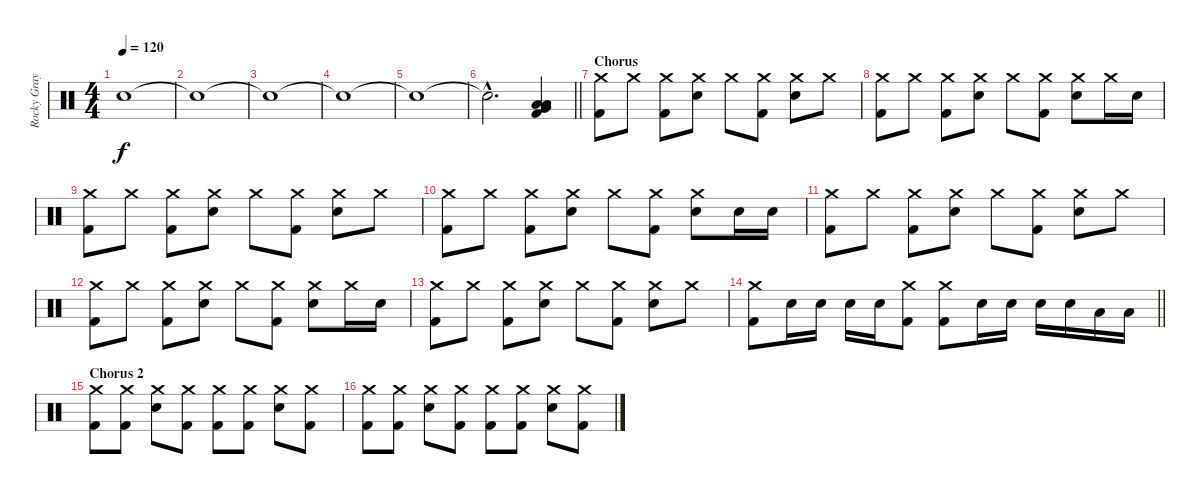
\track ("Rocky Gray" "Rocky Gray") {instrument percussion}
\staff {score}
\articulation defaults
\ts (4 4)
\tempo 120
\clef neutral
\ks c "Snare (hit)"{t}.1{dy f}
|
"Snare (hit)"{t}.1 |
"Snare (hit)"{t}.1 |
"Snare (hit)"{t}.1 |
"Snare (hit)"{t}.1 |
\barLineRight lightlight "Snare (hit)"{hac t}.2{d}
("Low Tom (hit)" "Very Low Tom (hit)" "Low Floor Tom (hit)" "Kick (hit) 2").4 |
\section ("" "Chorus")
("Crash medium (hit)" "Kick (hit) 2").8 "Crash medium (hit)".8 ("Crash medium (hit)" "Kick (hit) 2").8 ("Crash medium (hit)" "Electric Snare (hit)").8 "Crash medium (hit)".8 ("Crash medium (hit)" "Kick (hit) 2").8 ("Crash medium (hit)" "Electric Snare (hit)").8 "Crash medium (hit)".8 |
("Crash medium (hit)" "Kick (hit) 2").8 "Crash medium (hit)".8 ("Crash medium (hit)" "Kick (hit) 2").8 ("Crash medium (hit)" "Electric Snare (hit)").8 "Crash medium (hit)".8 ("Crash medium (hit)" "Kick (hit) 2").8 ("Crash medium (hit)" "Electric Snare (hit)").8 "Crash medium (hit)".16 "Electric Snare (hit)".16 |
("Crash medium (hit)" "Kick (hit) 2").8 "Crash medium (hit)".8 ("Crash medium (hit)" "Kick (hit) 2").8 ("Crash medium (hit)" "Electric Snare (hit)").8 "Crash medium (hit)".8 ("Crash medium (hit)" "Kick (hit) 2").8 ("Crash medium (hit)" "Electric Snare (hit)").8 "Crash medium (hit)".8 |
("Crash medium (hit)" "Kick (hit) 2").8 "Crash medium (hit)".8 ("Crash medium (hit)" "Kick (hit) 2").8 ("Crash medium (hit)" "Electric Snare (hit)").8 "Crash medium (hit)".8 ("Crash medium (hit)" "Kick (hit) 2").8 ("Crash medium (hit)" "Electric Snare (hit)").8 "Electric Snare (hit)".16 "Electric Snare (hit)".16 |
("Crash medium (hit)" "Kick (hit) 2").8 "Crash medium (hit)".8 ("Crash medium (hit)" "Kick (hit) 2").8 ("Crash medium (hit)" "Electric Snare (hit)").8 "Crash medium (hit)".8 ("Crash medium (hit)" "Kick (hit) 2").8 ("Crash medium (hit)" "Electric Snare (hit)").8 "Crash medium (hit)".8 |
("Crash medium (hit)" "Kick (hit) 2").8 "Crash medium (hit)".8 ("Crash medium (hit)" "Kick (hit) 2").8 ("Crash medium (hit)" "Electric Snare (hit)").8 "Crash medium (hit)".8 ("Crash medium (hit)" "Kick (hit) 2").8 ("Crash medium (hit)" "Electric Snare (hit)").8 "Crash medium (hit)".16 "Electric Snare (hit)".16 |
("Crash medium (hit)" "Kick (hit) 2").8 "Crash medium (hit)".8 ("Crash medium (hit)" "Kick (hit) 2").8 ("Crash medium (hit)" "Electric Snare (hit)").8 "Crash medium (hit)".8 ("Crash medium (hit)" "Kick (hit) 2").8 ("Crash medium (hit)" "Electric Snare (hit)").8 "Crash medium (hit)".8 |
\barLineRight lightlight
("Crash medium (hit)" "Kick (hit) 2").8 "Electric Snare (hit)".16 "Electric Snare (hit)".16 "Electric Snare (hit)".16 "Electric Snare (hit)".16 ("Crash medium (hit)" "Kick (hit) 2").8 ("Crash medium (hit)" "Kick (hit) 2").8 "Electric Snare (hit)".16 "Electric Snare (hit)".16 "Electric Snare (hit)".16 "Electric Snare (hit)".16 "Low Floor Tom (hit)".16 "Low Floor Tom (hit)".16 |
\section ("" "Chorus 2")
("Crash medium (hit)" "Kick (hit) 2").8 ("Crash medium (hit)" "Kick (hit) 2").8 ("Crash medium (hit)" "Electric Snare (hit)").8 ("Crash medium (hit)" "Kick (hit) 2").8 ("Crash medium (hit)" "Kick (hit) 2").8 ("Crash medium (hit)" "Kick (hit) 2").8 ("Crash medium (hit)" "Electric Snare (hit)").8 ("Crash medium (hit)" "Kick (hit) 2").8 |
("Crash medium (hit)" "Kick (hit) 2").8 ("Crash medium (hit)" "Kick (hit) 2").8 ("Crash medium (hit)" "Electric Snare (hit)").8 ("Crash medium (hit)" "Kick (hit) 2").8 ("Crash medium (hit)" "Kick (hit) 2").8 ("Crash medium (hit)" "Kick (hit) 2").8 ("Crash medium (hit)" "Electric Snare (hit)").8 ("Crash medium (hit)" "Kick (hit) 2").8
